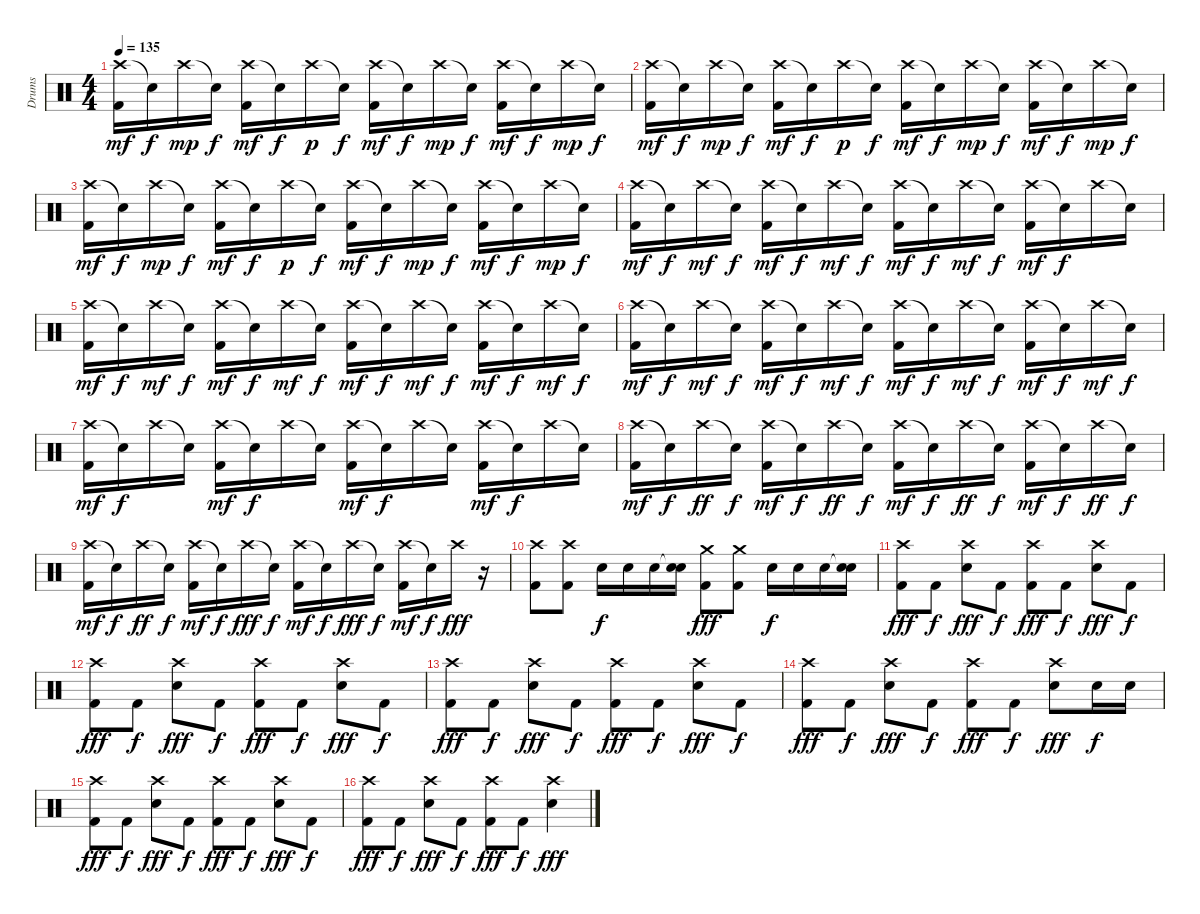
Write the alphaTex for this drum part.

\track ("Drums" "Drums") {instrument percussion}
\staff {score}
\articulation defaults
\ts (4 4)
\tempo 135
\clef neutral
\ks c
("Crash high (hit)" "Kick (hit) 2").16{dy mf} "Snare (hit)"{t}.16{dy f} "Crash high (hit)".16{dy mp} "Snare (hit)"{t}.16{dy f} ("Crash high (hit)" "Kick (hit) 2").16{dy mf} "Snare (hit)"{t}.16{dy f} "Crash high (hit)".16{dy p} "Snare (hit)"{t}.16{dy f} ("Crash high (hit)" "Kick (hit) 2").16{dy mf} "Snare (hit)"{t}.16{dy f} "Crash high (hit)".16{dy mp} "Snare (hit)"{t}.16{dy f} ("Crash high (hit)" "Kick (hit) 2").16{dy mf} "Snare (hit)"{t}.16{dy f} "Crash high (hit)".16{dy mp} "Snare (hit)"{t}.16{dy f} |
("Crash high (hit)" "Kick (hit) 2").16{dy mf} "Snare (hit)"{t}.16{dy f} "Crash high (hit)".16{dy mp} "Snare (hit)"{t}.16{dy f} ("Crash high (hit)" "Kick (hit) 2").16{dy mf} "Snare (hit)"{t}.16{dy f} "Crash high (hit)".16{dy p} "Snare (hit)"{t}.16{dy f} ("Crash high (hit)" "Kick (hit) 2").16{dy mf} "Snare (hit)"{t}.16{dy f} "Crash high (hit)".16{dy mp} "Snare (hit)"{t}.16{dy f} ("Crash high (hit)" "Kick (hit) 2").16{dy mf} "Snare (hit)"{t}.16{dy f} "Crash high (hit)".16{dy mp} "Snare (hit)"{t}.16{dy f} |
("Crash high (hit)" "Kick (hit) 2").16{dy mf} "Snare (hit)"{t}.16{dy f} "Crash high (hit)".16{dy mp} "Snare (hit)"{t}.16{dy f} ("Crash high (hit)" "Kick (hit) 2").16{dy mf} "Snare (hit)"{t}.16{dy f} "Crash high (hit)".16{dy p} "Snare (hit)"{t}.16{dy f} ("Crash high (hit)" "Kick (hit) 2").16{dy mf} "Snare (hit)"{t}.16{dy f} "Crash high (hit)".16{dy mp} "Snare (hit)"{t}.16{dy f} ("Crash high (hit)" "Kick (hit) 2").16{dy mf} "Snare (hit)"{t}.16{dy f} "Crash high (hit)".16{dy mp} "Snare (hit)"{t}.16{dy f} |
("Crash high (hit)" "Kick (hit) 2").16{dy mf} "Snare (hit)"{t}.16{dy f} "Crash high (hit)".16{dy mf} "Snare (hit)"{t}.16{dy f} ("Crash high (hit)" "Kick (hit) 2").16{dy mf} "Snare (hit)"{t}.16{dy f} "Crash high (hit)".16{dy mf} "Snare (hit)"{t}.16{dy f} ("Crash high (hit)" "Kick (hit) 2").16{dy mf} "Snare (hit)"{t}.16{dy f} "Crash high (hit)".16{dy mf} "Snare (hit)"{t}.16{dy f} ("Crash high (hit)" "Kick (hit) 2").16{dy mf} "Snare (hit)"{t}.16{dy f} "Crash high (hit)".16 "Snare (hit)"{t}.16 |
("Crash high (hit)" "Kick (hit) 2").16{dy mf} "Snare (hit)"{t}.16{dy f} "Crash high (hit)".16{dy mf} "Snare (hit)"{t}.16{dy f} ("Crash high (hit)" "Kick (hit) 2").16{dy mf} "Snare (hit)"{t}.16{dy f} "Crash high (hit)".16{dy mf} "Snare (hit)"{t}.16{dy f} ("Crash high (hit)" "Kick (hit) 2").16{dy mf} "Snare (hit)"{t}.16{dy f} "Crash high (hit)".16{dy mf} "Snare (hit)"{t}.16{dy f} ("Crash high (hit)" "Kick (hit) 2").16{dy mf} "Snare (hit)"{t}.16{dy f} "Crash high (hit)".16{dy mf} "Snare (hit)"{t}.16{dy f} |
("Crash high (hit)" "Kick (hit) 2").16{dy mf} "Snare (hit)"{t}.16{dy f} "Crash high (hit)".16{dy mf} "Snare (hit)"{t}.16{dy f} ("Crash high (hit)" "Kick (hit) 2").16{dy mf} "Snare (hit)"{t}.16{dy f} "Crash high (hit)".16{dy mf} "Snare (hit)"{t}.16{dy f} ("Crash high (hit)" "Kick (hit) 2").16{dy mf} "Snare (hit)"{t}.16{dy f} "Crash high (hit)".16{dy mf} "Snare (hit)"{t}.16{dy f} ("Crash high (hit)" "Kick (hit) 2").16{dy mf} "Snare (hit)"{t}.16{dy f} "Crash high (hit)".16{dy mf} "Snare (hit)"{t}.16{dy f} |
("Crash high (hit)" "Kick (hit) 2").16{dy mf} "Snare (hit)"{t}.16{dy f} "Crash high (hit)".16 "Snare (hit)"{t}.16 ("Crash high (hit)" "Kick (hit) 2").16{dy mf} "Snare (hit)"{t}.16{dy f} "Crash high (hit)".16 "Snare (hit)"{t}.16 ("Crash high (hit)" "Kick (hit) 2").16{dy mf} "Snare (hit)"{t}.16{dy f} "Crash high (hit)".16 "Snare (hit)"{t}.16 ("Crash high (hit)" "Kick (hit) 2").16{dy mf} "Snare (hit)"{t}.16{dy f} "Crash high (hit)".16 "Snare (hit)"{t}.16 |
("Crash high (hit)" "Kick (hit) 2").16{dy mf} "Snare (hit)"{t}.16{dy f} "Crash high (hit)".16{dy ff} "Snare (hit)"{t}.16{dy f} ("Crash high (hit)" "Kick (hit) 2").16{dy mf} "Snare (hit)"{t}.16{dy f} "Crash high (hit)".16{dy ff} "Snare (hit)"{t}.16{dy f} ("Crash high (hit)" "Kick (hit) 2").16{dy mf} "Snare (hit)"{t}.16{dy f} "Crash high (hit)".16{dy ff} "Snare (hit)"{t}.16{dy f} ("Crash high (hit)" "Kick (hit) 2").16{dy mf} "Snare (hit)"{t}.16{dy f} "Crash high (hit)".16{dy ff} "Snare (hit)"{t}.16{dy f} |
("Crash high (hit)" "Kick (hit) 2").16{dy mf} "Snare (hit)"{t}.16{dy f} "Crash high (hit)".16{dy ff} "Snare (hit)"{t}.16{dy f} ("Crash high (hit)" "Kick (hit) 2").16{dy mf} "Snare (hit)"{t}.16{dy f} "Crash high (hit)".16{dy fff} "Snare (hit)"{t}.16{dy f} ("Crash high (hit)" "Kick (hit) 2").16{dy mf} "Snare (hit)"{t}.16{dy f} "Crash high (hit)".16{dy fff} "Snare (hit)"{t}.16{dy f} ("Crash high (hit)" "Kick (hit) 2").16{dy mf} "Snare (hit)"{t}.16{dy f} "Crash high (hit)".16{dy fff} r.16 |
("Crash high (hit)" "Kick (hit) 2").8 ("Crash high (hit)" "Kick (hit) 2").8 "Snare (hit) 2".16{dy f} "Snare (hit) 2".16 "Snare (hit) 2".16 ("Snare (hit)"{t} "Snare (hit) 2").16 ("Crash medium (hit)" "Kick (hit) 2").8{dy fff} ("Crash medium (hit)" "Kick (hit) 2").8 "Snare (hit) 2".16{dy f} "Snare (hit) 2".16 "Snare (hit) 2".16 ("Snare (hit)"{t} "Snare (hit) 2").16 |
("Crash high (hit)" "Kick (hit) 2").8{dy fff} "Kick (hit) 2".8{dy f} ("Crash high (hit)" "Snare (hit) 2").8{dy fff} "Kick (hit) 2".8{dy f} ("Crash high (hit)" "Kick (hit) 2").8{dy fff} "Kick (hit) 2".8{dy f} ("Crash high (hit)" "Snare (hit) 2").8{dy fff} "Kick (hit) 2".8{dy f} |
("Crash high (hit)" "Kick (hit) 2").8{dy fff} "Kick (hit) 2".8{dy f} ("Crash high (hit)" "Snare (hit) 2").8{dy fff} "Kick (hit) 2".8{dy f} ("Crash high (hit)" "Kick (hit) 2").8{dy fff} "Kick (hit) 2".8{dy f} ("Crash high (hit)" "Snare (hit) 2").8{dy fff} "Kick (hit) 2".8{dy f} |
("Crash high (hit)" "Kick (hit) 2").8{dy fff} "Kick (hit) 2".8{dy f} ("Crash high (hit)" "Snare (hit) 2").8{dy fff} "Kick (hit) 2".8{dy f} ("Crash high (hit)" "Kick (hit) 2").8{dy fff} "Kick (hit) 2".8{dy f} ("Crash high (hit)" "Snare (hit) 2").8{dy fff} "Kick (hit) 2".8{dy f} |
("Crash high (hit)" "Kick (hit) 2").8{dy fff} "Kick (hit) 2".8{dy f} ("Crash high (hit)" "Snare (hit) 2").8{dy fff} "Kick (hit) 2".8{dy f} ("Crash high (hit)" "Kick (hit) 2").8{dy fff} "Kick (hit) 2".8{dy f} ("Crash high (hit)" "Snare (hit) 2").8{dy fff} "Snare (hit) 2".16{dy f} "Snare (hit) 2".16 |
("Crash high (hit)" "Kick (hit) 2").8{dy fff} "Kick (hit) 2".8{dy f} ("Crash high (hit)" "Snare (hit) 2").8{dy fff} "Kick (hit) 2".8{dy f} ("Crash high (hit)" "Kick (hit) 2").8{dy fff} "Kick (hit) 2".8{dy f} ("Crash high (hit)" "Snare (hit) 2").8{dy fff} "Kick (hit) 2".8{dy f} |
("Crash high (hit)" "Kick (hit) 2").8{dy fff} "Kick (hit) 2".8{dy f} ("Crash high (hit)" "Snare (hit) 2").8{dy fff} "Kick (hit) 2".8{dy f} ("Crash high (hit)" "Kick (hit) 2").8{dy fff} "Kick (hit) 2".8{dy f} ("Crash high (hit)" "Snare (hit) 2").4{dy fff}
